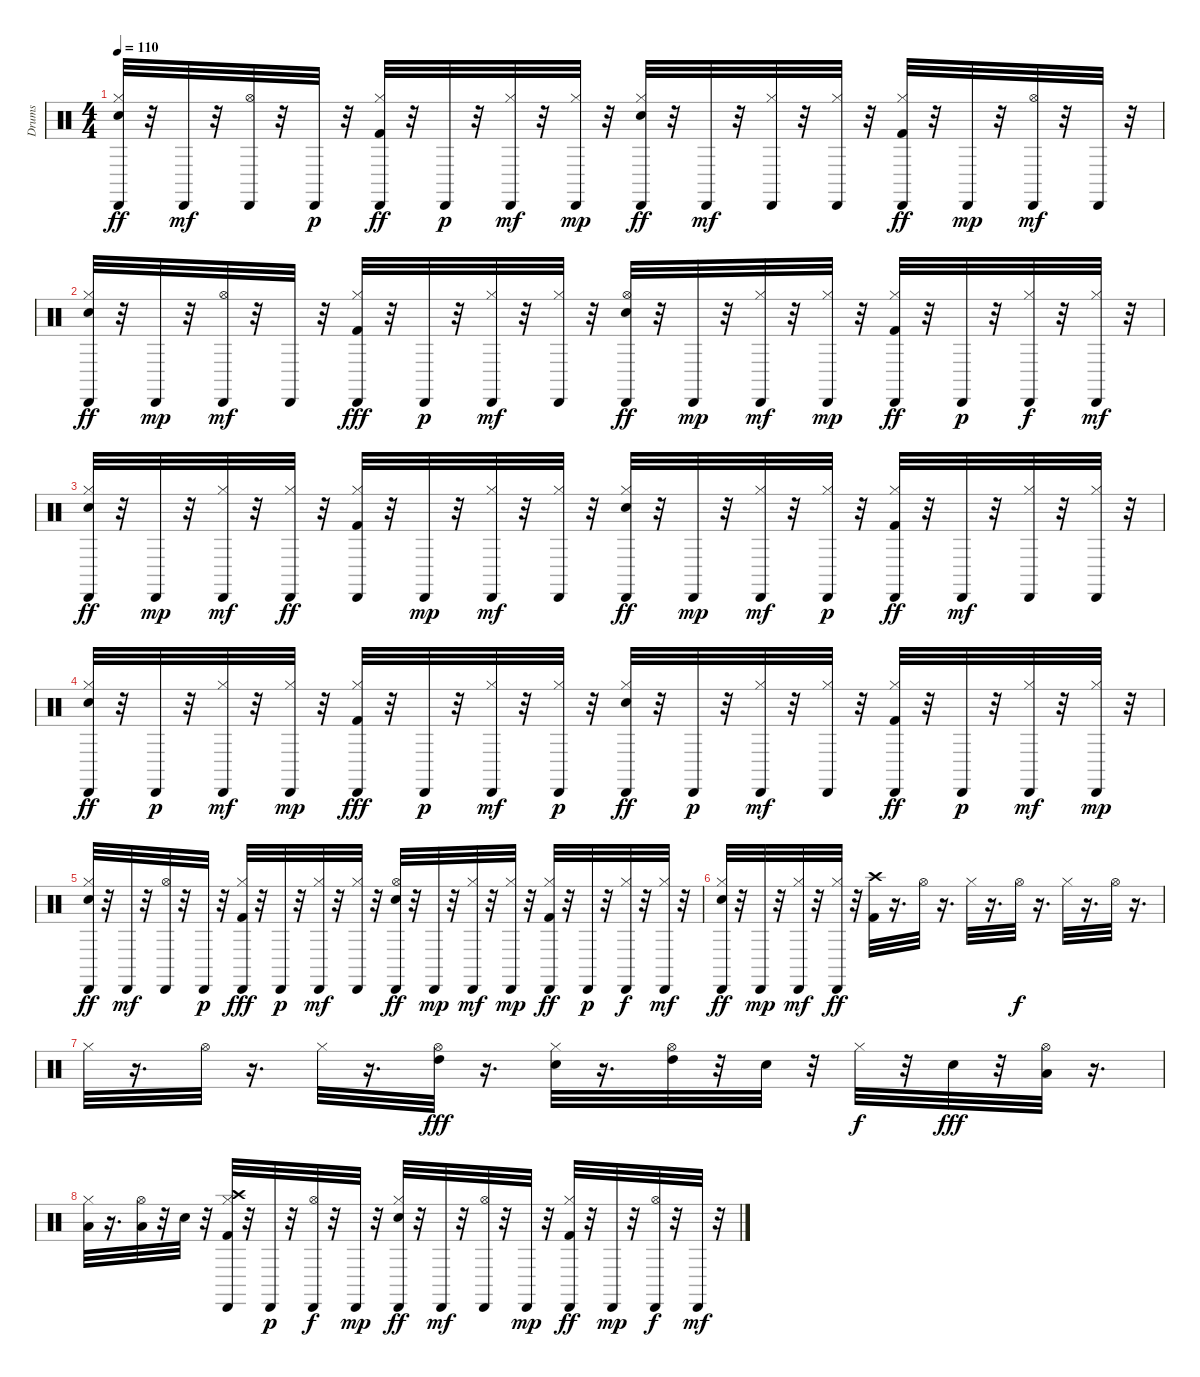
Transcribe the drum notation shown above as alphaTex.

\track ("Drums" "Drums") {instrument percussion}
\staff {score}
\articulation defaults
\ts (4 4)
\tempo 110
\clef neutral
\ks c
("Cabasa (hit)" "Hi-Hat (closed)" "Snare (hit) 2").32{dy ff} r.32 "Cabasa (hit)".32{dy mf} r.32 ("Hi-Hat (open)" "Cabasa (hit)").32 r.32 "Cabasa (hit)".32{dy p} r.32 ("Cabasa (hit)" "Hi-Hat (closed)" "Kick (hit) 2").32{dy ff} r.32 "Cabasa (hit)".32{dy p} r.32 ("Cabasa (hit)" "Hi-Hat (closed)").32{dy mf} r.32 ("Cabasa (hit)" "Hi-Hat (closed)").32{dy mp} r.32 ("Cabasa (hit)" "Hi-Hat (closed)" "Snare (hit) 2").32{dy ff} r.32 "Cabasa (hit)".32{dy mf} r.32 ("Cabasa (hit)" "Hi-Hat (closed)").32 r.32 ("Cabasa (hit)" "Hi-Hat (closed)").32 r.32 ("Cabasa (hit)" "Hi-Hat (closed)" "Kick (hit) 2").32{dy ff} r.32 "Cabasa (hit)".32{dy mp} r.32 ("Hi-Hat (open)" "Cabasa (hit)").32{dy mf} r.32 "Cabasa (hit)".32 r.32 |
("Cabasa (hit)" "Hi-Hat (closed)" "Snare (hit) 2").32{dy ff} r.32 "Cabasa (hit)".32{dy mp} r.32 ("Hi-Hat (open)" "Cabasa (hit)").32{dy mf} r.32 "Cabasa (hit)".32 r.32 ("Cabasa (hit)" "Hi-Hat (closed)" "Kick (hit) 2").32{dy fff} r.32 "Cabasa (hit)".32{dy p} r.32 ("Cabasa (hit)" "Hi-Hat (closed)").32{dy mf} r.32 ("Cabasa (hit)" "Hi-Hat (closed)").32 r.32 ("Hi-Hat (open)" "Cabasa (hit)" "Snare (hit) 2").32{dy ff} r.32 "Cabasa (hit)".32{dy mp} r.32 ("Cabasa (hit)" "Hi-Hat (closed)").32{dy mf} r.32 ("Cabasa (hit)" "Hi-Hat (closed)").32{dy mp} r.32 ("Cabasa (hit)" "Hi-Hat (closed)" "Kick (hit) 2").32{dy ff} r.32 "Cabasa (hit)".32{dy p} r.32 ("Cabasa (hit)" "Hi-Hat (closed)").32{dy f} r.32 ("Cabasa (hit)" "Hi-Hat (closed)").32{dy mf} r.32 |
("Cabasa (hit)" "Hi-Hat (closed)" "Snare (hit) 2").32{dy ff} r.32 "Cabasa (hit)".32{dy mp} r.32 ("Cabasa (hit)" "Hi-Hat (closed)").32{dy mf} r.32 ("Cabasa (hit)" "Hi-Hat (closed)").32{dy ff} r.32 ("Cabasa (hit)" "Hi-Hat (closed)" "Kick (hit) 2").32 r.32 "Cabasa (hit)".32{dy mp} r.32 ("Cabasa (hit)" "Hi-Hat (closed)").32{dy mf} r.32 ("Cabasa (hit)" "Hi-Hat (closed)").32 r.32 ("Cabasa (hit)" "Hi-Hat (closed)" "Snare (hit) 2").32{dy ff} r.32 "Cabasa (hit)".32{dy mp} r.32 ("Cabasa (hit)" "Hi-Hat (closed)").32{dy mf} r.32 ("Cabasa (hit)" "Hi-Hat (closed)").32{dy p} r.32 ("Cabasa (hit)" "Hi-Hat (closed)" "Kick (hit) 2").32{dy ff} r.32 "Cabasa (hit)".32{dy mf} r.32 ("Cabasa (hit)" "Hi-Hat (closed)").32 r.32 ("Cabasa (hit)" "Hi-Hat (closed)").32 r.32 |
("Cabasa (hit)" "Hi-Hat (closed)" "Snare (hit) 2").32{dy ff} r.32 "Cabasa (hit)".32{dy p} r.32 ("Cabasa (hit)" "Hi-Hat (closed)").32{dy mf} r.32 ("Cabasa (hit)" "Hi-Hat (closed)").32{dy mp} r.32 ("Cabasa (hit)" "Hi-Hat (closed)" "Kick (hit) 2").32{dy fff} r.32 "Cabasa (hit)".32{dy p} r.32 ("Cabasa (hit)" "Hi-Hat (closed)").32{dy mf} r.32 ("Cabasa (hit)" "Hi-Hat (closed)").32{dy p} r.32 ("Cabasa (hit)" "Hi-Hat (closed)" "Snare (hit) 2").32{dy ff} r.32 "Cabasa (hit)".32{dy p} r.32 ("Cabasa (hit)" "Hi-Hat (closed)").32{dy mf} r.32 ("Cabasa (hit)" "Hi-Hat (closed)").32 r.32 ("Cabasa (hit)" "Hi-Hat (closed)" "Kick (hit) 2").32{dy ff} r.32 "Cabasa (hit)".32{dy p} r.32 ("Cabasa (hit)" "Hi-Hat (closed)").32{dy mf} r.32 ("Cabasa (hit)" "Hi-Hat (closed)").32{dy mp} r.32 |
("Cabasa (hit)" "Hi-Hat (closed)" "Snare (hit) 2").32{dy ff} r.32 "Cabasa (hit)".32{dy mf} r.32 ("Hi-Hat (open)" "Cabasa (hit)").32 r.32 "Cabasa (hit)".32{dy p} r.32 ("Cabasa (hit)" "Hi-Hat (closed)" "Kick (hit) 2").32{dy fff} r.32 "Cabasa (hit)".32{dy p} r.32 ("Cabasa (hit)" "Hi-Hat (closed)").32{dy mf} r.32 ("Cabasa (hit)" "Hi-Hat (closed)").32 r.32 ("Hi-Hat (open)" "Cabasa (hit)" "Snare (hit) 2").32{dy ff} r.32 "Cabasa (hit)".32{dy mp} r.32 ("Cabasa (hit)" "Hi-Hat (closed)").32{dy mf} r.32 ("Cabasa (hit)" "Hi-Hat (closed)").32{dy mp} r.32 ("Cabasa (hit)" "Hi-Hat (closed)" "Kick (hit) 2").32{dy ff} r.32 "Cabasa (hit)".32{dy p} r.32 ("Cabasa (hit)" "Hi-Hat (closed)").32{dy f} r.32 ("Cabasa (hit)" "Hi-Hat (closed)").32{dy mf} r.32 |
("Cabasa (hit)" "Hi-Hat (closed)" "Snare (hit) 2").32{dy ff} r.32 "Cabasa (hit)".32{dy mp} r.32 ("Cabasa (hit)" "Hi-Hat (closed)").32{dy mf} r.32 ("Cabasa (hit)" "Hi-Hat (closed)").32{dy ff} r.32 ("Crash high (hit)" "Kick (hit) 2").32 r.16{d} "Hi-Hat (open)".32 r.16{d} "Hi-Hat (closed)".32 r.16{d} "Hi-Hat (open)".32{dy f} r.16{d} "Hi-Hat (closed)".32 r.16{d} "Hi-Hat (open)".32 r.16{d} |
"Hi-Hat (closed)".32 r.16{d} "Hi-Hat (open)".32 r.16{d} "Hi-Hat (closed)".32 r.16{d} ("High Tom (hit)" "Hi-Hat (open)").32{dy fff} r.16{d} ("Hi-Hat (closed)" "Snare (hit) 2").32 r.16{d} ("High Tom (hit)" "Hi-Hat (open)").32 r.32 "Snare (hit) 2".32 r.32 "Hi-Hat (closed)".32{dy f} r.32 "Snare (hit) 2".32{dy fff} r.32 ("Low Tom (hit)" "Hi-Hat (open)").32 r.16{d} |
("Low Tom (hit)" "Hi-Hat (closed)").32 r.16{d} ("Low Floor Tom (hit)" "Hi-Hat (open)").32 r.32 "Snare (hit) 2".32 r.32 ("Cabasa (hit)" "Crash high (hit)" "Hi-Hat (closed)" "Kick (hit) 2").32 r.32 "Cabasa (hit)".32{dy p} r.32 ("Hi-Hat (open)" "Cabasa (hit)").32{dy f} r.32 "Cabasa (hit)".32{dy mp} r.32 ("Cabasa (hit)" "Hi-Hat (closed)" "Snare (hit) 2").32{dy ff} r.32 "Cabasa (hit)".32{dy mf} r.32 ("Hi-Hat (open)" "Cabasa (hit)").32 r.32 "Cabasa (hit)".32{dy mp} r.32 ("Cabasa (hit)" "Hi-Hat (closed)" "Kick (hit) 2").32{dy ff} r.32 "Cabasa (hit)".32{dy mp} r.32 ("Hi-Hat (open)" "Cabasa (hit)").32{dy f} r.32 "Cabasa (hit)".32{dy mf} r.32
